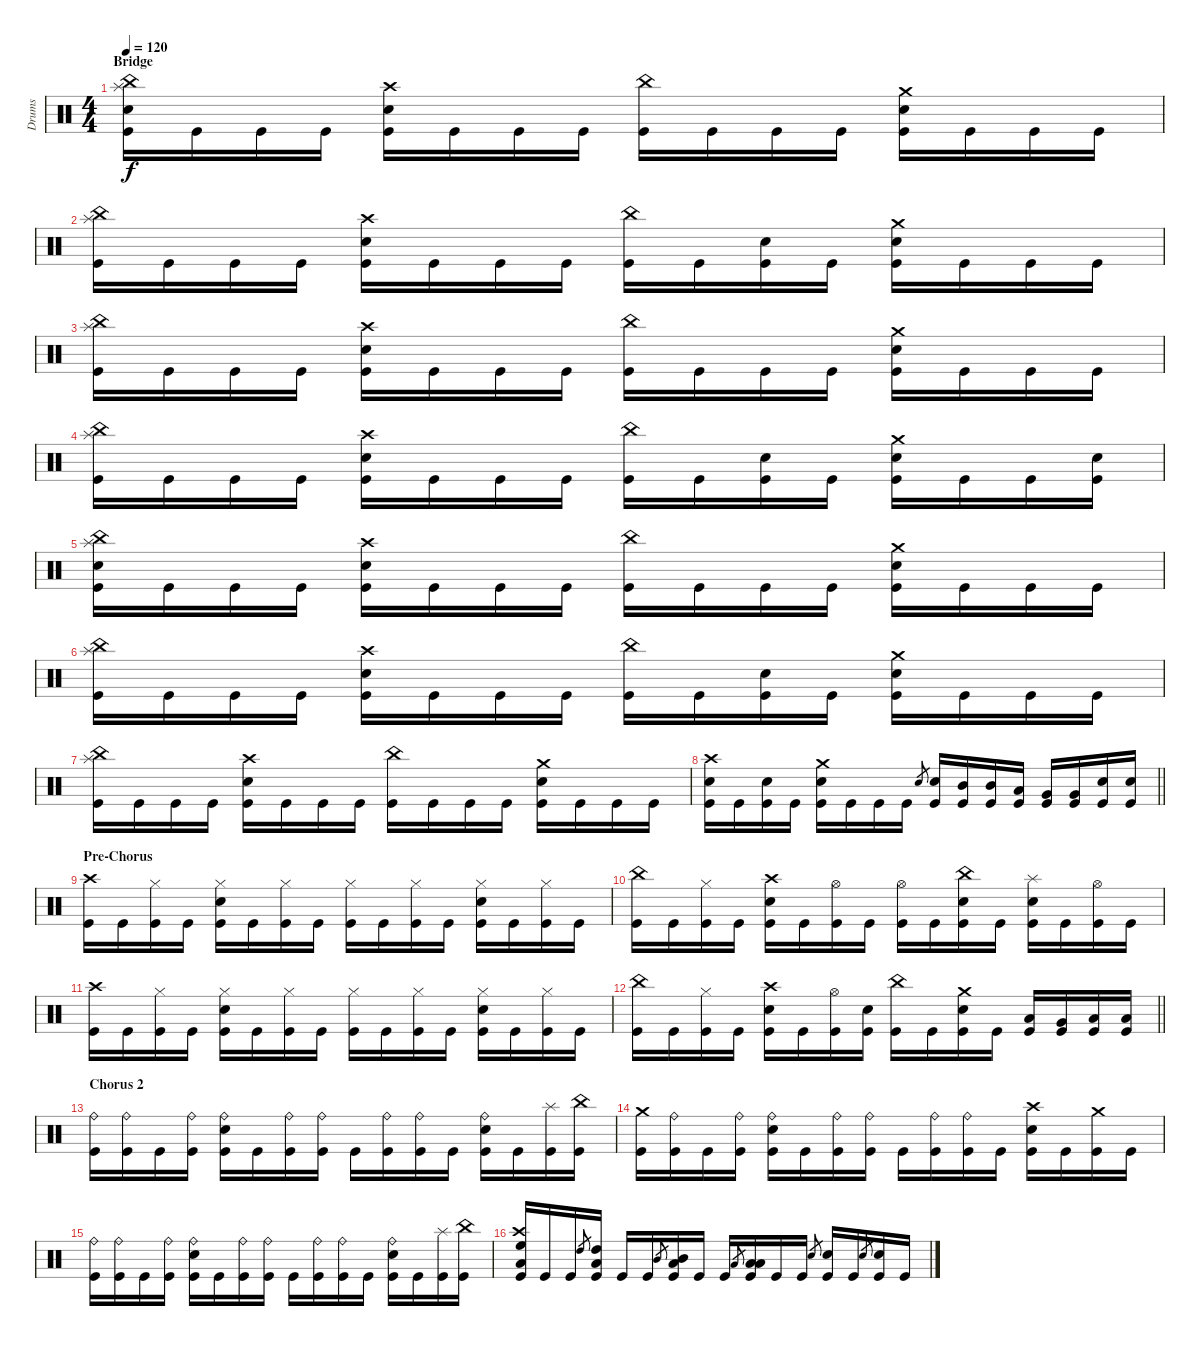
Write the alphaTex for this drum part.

\track ("Drums" "Drums") {instrument percussion}
\staff {score}
\articulation defaults
\ts (4 4)
\section ("" "Bridge")
\tempo 120
\clef neutral
\ks c
("Splash (hit)" "China (hit)" "Snare (hit) 2" "Kick (hit)").16{dy f} "Kick (hit)".16 "Kick (hit)".16 "Kick (hit)".16 ("Crash high (hit)" "Snare (hit) 2" "Kick (hit)").16 "Kick (hit)".16 "Kick (hit)".16 "Kick (hit)".16 ("China (hit)" "Kick (hit)").16 "Kick (hit)".16 "Kick (hit)".16 "Kick (hit)".16 ("Crash medium (hit)" "Snare (hit) 2" "Kick (hit)").16 "Kick (hit)".16 "Kick (hit)".16 "Kick (hit)".16 |
("Splash (hit)" "China (hit)" "Kick (hit)").16 "Kick (hit)".16 "Kick (hit)".16 "Kick (hit)".16 ("Crash high (hit)" "Snare (hit) 2" "Kick (hit)").16 "Kick (hit)".16 "Kick (hit)".16 "Kick (hit)".16 ("China (hit)" "Kick (hit)").16 "Kick (hit)".16 ("Snare (hit) 2" "Kick (hit)").16 "Kick (hit)".16 ("Crash medium (hit)" "Snare (hit) 2" "Kick (hit)").16 "Kick (hit)".16 "Kick (hit)".16 "Kick (hit)".16 |
("Splash (hit)" "China (hit)" "Kick (hit)").16 "Kick (hit)".16 "Kick (hit)".16 "Kick (hit)".16 ("Crash high (hit)" "Snare (hit) 2" "Kick (hit)").16 "Kick (hit)".16 "Kick (hit)".16 "Kick (hit)".16 ("China (hit)" "Kick (hit)").16 "Kick (hit)".16 "Kick (hit)".16 "Kick (hit)".16 ("Crash medium (hit)" "Snare (hit) 2" "Kick (hit)").16 "Kick (hit)".16 "Kick (hit)".16 "Kick (hit)".16 |
("Splash (hit)" "China (hit)" "Kick (hit)").16 "Kick (hit)".16 "Kick (hit)".16 "Kick (hit)".16 ("Crash high (hit)" "Snare (hit) 2" "Kick (hit)").16 "Kick (hit)".16 "Kick (hit)".16 "Kick (hit)".16 ("China (hit)" "Kick (hit)").16 "Kick (hit)".16 ("Snare (hit) 2" "Kick (hit)").16 "Kick (hit)".16 ("Crash medium (hit)" "Snare (hit) 2" "Kick (hit)").16 "Kick (hit)".16 "Kick (hit)".16 ("Snare (hit) 2" "Kick (hit)").16 |
("Splash (hit)" "China (hit)" "Snare (hit) 2" "Kick (hit)").16 "Kick (hit)".16 "Kick (hit)".16 "Kick (hit)".16 ("Crash high (hit)" "Snare (hit) 2" "Kick (hit)").16 "Kick (hit)".16 "Kick (hit)".16 "Kick (hit)".16 ("China (hit)" "Kick (hit)").16 "Kick (hit)".16 "Kick (hit)".16 "Kick (hit)".16 ("Crash medium (hit)" "Snare (hit) 2" "Kick (hit)").16 "Kick (hit)".16 "Kick (hit)".16 "Kick (hit)".16 |
("Splash (hit)" "China (hit)" "Kick (hit)").16 "Kick (hit)".16 "Kick (hit)".16 "Kick (hit)".16 ("Crash high (hit)" "Snare (hit) 2" "Kick (hit)").16 "Kick (hit)".16 "Kick (hit)".16 "Kick (hit)".16 ("China (hit)" "Kick (hit)").16 "Kick (hit)".16 ("Snare (hit) 2" "Kick (hit)").16 "Kick (hit)".16 ("Crash medium (hit)" "Snare (hit) 2" "Kick (hit)").16 "Kick (hit)".16 "Kick (hit)".16 "Kick (hit)".16 |
("Splash (hit)" "China (hit)" "Kick (hit)").16 "Kick (hit)".16 "Kick (hit)".16 "Kick (hit)".16 ("Crash high (hit)" "Snare (hit) 2" "Kick (hit)").16 "Kick (hit)".16 "Kick (hit)".16 "Kick (hit)".16 ("China (hit)" "Kick (hit)").16 "Kick (hit)".16 "Kick (hit)".16 "Kick (hit)".16 ("Crash medium (hit)" "Snare (hit) 2" "Kick (hit)").16 "Kick (hit)".16 "Kick (hit)".16 "Kick (hit)".16 |
\barLineRight lightlight
("Crash high (hit)" "Snare (hit) 2" "Kick (hit)").16 "Kick (hit)".16 ("Snare (hit) 2" "Kick (hit)").16 "Kick (hit)".16 ("Crash medium (hit)" "Snare (hit) 2" "Kick (hit)").16 "Kick (hit)".16 "Kick (hit)".16 "Kick (hit)".16 "Snare (hit) 2".8{gr} ("Snare (hit) 2" "Kick (hit)").16 ("Mid Tom (hit)" "Kick (hit)").16 ("Mid Tom (hit)" "Kick (hit)").16 ("Low Tom (hit)" "Kick (hit)").16 ("Very Low Tom (hit)" "Kick (hit)").16 ("Very Low Tom (hit)" "Kick (hit)").16 ("Snare (hit) 2" "Kick (hit)").16 ("Snare (hit) 2" "Kick (hit)").16 |
\section ("" "Pre-Chorus")
("Crash high (hit)" "Kick (hit)").16 "Kick (hit)".16 ("Hi-Hat (closed)" "Kick (hit)").16 "Kick (hit)".16 ("Hi-Hat (closed)" "Snare (hit) 2" "Kick (hit)").16 "Kick (hit)".16 ("Hi-Hat (closed)" "Kick (hit)").16 "Kick (hit)".16 ("Hi-Hat (closed)" "Kick (hit)").16 "Kick (hit)".16 ("Hi-Hat (closed)" "Kick (hit)").16 "Kick (hit)".16 ("Hi-Hat (closed)" "Snare (hit) 2" "Kick (hit)").16 "Kick (hit)".16 ("Hi-Hat (closed)" "Kick (hit)").16 "Kick (hit)".16 |
("China (hit)" "Kick (hit)").16 "Kick (hit)".16 ("Hi-Hat (closed)" "Kick (hit)").16 "Kick (hit)".16 ("Crash high (hit)" "Snare (hit) 2" "Kick (hit)").16 "Kick (hit)".16 ("Hi-Hat (open)" "Kick (hit)").16 "Kick (hit)".16 ("Hi-Hat (open)" "Kick (hit)").16 "Kick (hit)".16 ("China (hit)" "Snare (hit) 2" "Kick (hit)").16 "Kick (hit)".16 ("Splash (hit)" "Snare (hit) 2" "Kick (hit)").16 "Kick (hit)".16 ("Hi-Hat (open)" "Kick (hit)").16 "Kick (hit)".16 |
("Crash high (hit)" "Kick (hit)").16 "Kick (hit)".16 ("Hi-Hat (closed)" "Kick (hit)").16 "Kick (hit)".16 ("Hi-Hat (closed)" "Snare (hit) 2" "Kick (hit)").16 "Kick (hit)".16 ("Hi-Hat (closed)" "Kick (hit)").16 "Kick (hit)".16 ("Hi-Hat (closed)" "Kick (hit)").16 "Kick (hit)".16 ("Hi-Hat (closed)" "Kick (hit)").16 "Kick (hit)".16 ("Hi-Hat (closed)" "Snare (hit) 2" "Kick (hit)").16 "Kick (hit)".16 ("Hi-Hat (closed)" "Kick (hit)").16 "Kick (hit)".16 |
\barLineRight lightlight
("China (hit)" "Kick (hit)").16 "Kick (hit)".16 ("Hi-Hat (closed)" "Kick (hit)").16 "Kick (hit)".16 ("Crash high (hit)" "Snare (hit) 2" "Kick (hit)").16 "Kick (hit)".16 ("Hi-Hat (open)" "Kick (hit)").16 ("Snare (hit) 2" "Kick (hit)").16 ("China (hit)" "Kick (hit)").16 "Kick (hit)".16 ("Crash medium (hit)" "Snare (hit) 2" "Kick (hit)").16 "Kick (hit)".16 ("Low Tom (hit)" "Kick (hit)").16 ("Very Low Tom (hit)" "Kick (hit)").16 ("Low Floor Tom (hit)" "Kick (hit)").16 ("Low Floor Tom (hit)" "Kick (hit)").16 |
\section ("" "Chorus 2")
("Ride (bell)" "Kick (hit)").16 ("Ride (bell)" "Kick (hit)").16 "Kick (hit)".16 ("Ride (bell)" "Kick (hit)").16 ("Ride (bell)" "Snare (hit) 2" "Kick (hit)").16 "Kick (hit)".16 ("Ride (bell)" "Kick (hit)").16 ("Ride (bell)" "Kick (hit)").16 "Kick (hit)".16 ("Ride (bell)" "Kick (hit)").16 ("Ride (bell)" "Kick (hit)").16 "Kick (hit)".16 ("Ride (bell)" "Snare (hit) 2" "Kick (hit)").16 "Kick (hit)".16 ("Splash (hit)" "Kick (hit)").16 ("China (hit)" "Kick (hit)").16 |
("Crash medium (hit)" "Kick (hit)").16 ("Ride (bell)" "Kick (hit)").16 "Kick (hit)".16 ("Ride (bell)" "Kick (hit)").16 ("Ride (bell)" "Snare (hit) 2" "Kick (hit)").16 "Kick (hit)".16 ("Ride (bell)" "Kick (hit)").16 ("Ride (bell)" "Kick (hit)").16 "Kick (hit)".16 ("Ride (bell)" "Kick (hit)").16 ("Ride (bell)" "Kick (hit)").16 "Kick (hit)".16 ("Crash high (hit)" "Snare (hit) 2" "Kick (hit)").16 "Kick (hit)".16 ("Crash medium (hit)" "Kick (hit)").16 "Kick (hit)".16 |
("Ride (bell)" "Kick (hit)").16 ("Ride (bell)" "Kick (hit)").16 "Kick (hit)".16 ("Ride (bell)" "Kick (hit)").16 ("Ride (bell)" "Snare (hit) 2" "Kick (hit)").16 "Kick (hit)".16 ("Ride (bell)" "Kick (hit)").16 ("Ride (bell)" "Kick (hit)").16 "Kick (hit)".16 ("Ride (bell)" "Kick (hit)").16 ("Ride (bell)" "Kick (hit)").16 "Kick (hit)".16 ("Ride (bell)" "Snare (hit) 2" "Kick (hit)").16 "Kick (hit)".16 ("Splash (hit)" "Kick (hit)").16 ("China (hit)" "Kick (hit)").16 |
("Crash high (hit)" "High Floor Tom (hit)" "Low Floor Tom (hit)" "Kick (hit)").16 "Kick (hit)".16 "Kick (hit)".16 "High Tom (hit)".8{gr} ("High Tom (hit)" "Low Floor Tom (hit)" "Kick (hit)").16 "Kick (hit)".16 "Kick (hit)".16 "Mid Tom (hit)".8{gr} ("Mid Tom (hit)" "Low Floor Tom (hit)" "Kick (hit)").16 "Kick (hit)".16 "Kick (hit)".16 "Low Tom (hit)".8{gr} ("Low Tom (hit)" "Low Floor Tom (hit)" "Kick (hit)").16 "Kick (hit)".16 "Kick (hit)".16 "Snare (hit) 2".8{gr} ("Snare (hit) 2" "Kick (hit)").16 "Kick (hit)".16 "Snare (hit) 2".8{gr} ("Snare (hit) 2" "Kick (hit)").16 "Kick (hit)".16
